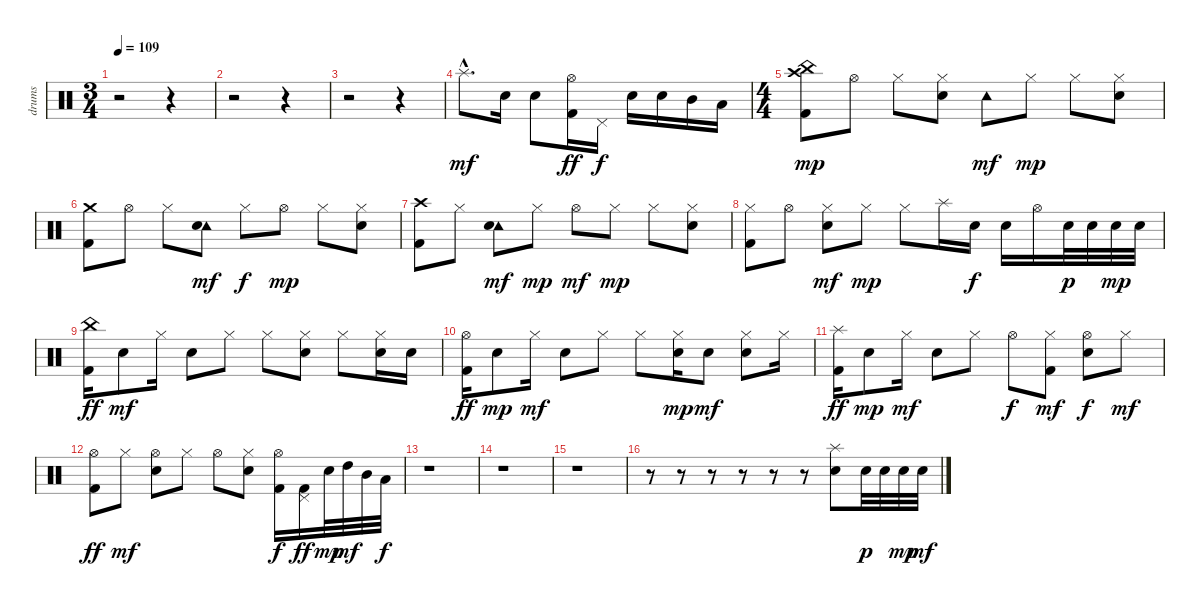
\track ("drums" "drums") {instrument percussion}
\staff {score}
\articulation defaults
\ts (3 4)
\tempo 109
\clef neutral
\ks c
r.2{dy mf} r.4 |
r.2 r.4 |
r.2 r.4 |
"Splash (hit)"{hac}.8{d} "Electric Snare (hit)".16 "Electric Snare (hit)".8 ("Hi-Hat (open)" "Kick (hit) 2").16{dy ff} "Pedal Hi-Hat (hit)".16{dy f} "Electric Snare (hit)".16 "Electric Snare (hit)".16 "Mid Tom (hit)".16 "Low Tom (hit)".16 |
\ts (4 4)
("China (hit)" "Crash high (hit)" "Kick (hit) 2").8{dy mp} "Hi-Hat (open)".8 "Hi-Hat (closed)".8 ("Hi-Hat (closed)" "Electric Snare (hit)").8 "Tambourine (hit)".8{dy mf} "Hi-Hat (closed)".8{dy mp} "Hi-Hat (closed)".8 ("Hi-Hat (closed)" "Electric Snare (hit)").8 |
("Crash medium (hit)" "Kick (hit) 2").8 "Hi-Hat (open)".8 "Hi-Hat (closed)".8 ("Tambourine (hit)" "Electric Snare (hit)").8{dy mf} "Hi-Hat (closed)".8{dy f} "Hi-Hat (open)".8{dy mp} "Hi-Hat (closed)".8 ("Hi-Hat (closed)" "Electric Snare (hit)").8 |
("Crash high (hit)" "Kick (hit) 2").8 "Hi-Hat (closed)".8 ("Tambourine (hit)" "Electric Snare (hit)").8{dy mf} "Hi-Hat (closed)".8{dy mp} "Hi-Hat (open)".8{dy mf} "Hi-Hat (closed)".8{dy mp} "Hi-Hat (closed)".8 ("Hi-Hat (closed)" "Electric Snare (hit)").8 |
("Hi-Hat (closed)" "Kick (hit) 2").8 "Hi-Hat (open)".8 ("Hi-Hat (closed)" "Electric Snare (hit)").8{dy mf} "Hi-Hat (closed)".8{dy mp} "Hi-Hat (closed)".8 "Splash (hit)".16 "Electric Snare (hit)".16{dy f} "Electric Snare (hit)".16 "Hi-Hat (open)".16 "Electric Snare (hit)".32{dy p} "Electric Snare (hit)".32 "Electric Snare (hit)".32{dy mp} "Electric Snare (hit)".32 |
("China (hit)" "Kick (hit) 2").16{dy ff} "Electric Snare (hit)".8{dy mf} "Hi-Hat (closed)".16 "Electric Snare (hit)".8 "Hi-Hat (closed)".8 "Hi-Hat (closed)".8 ("Hi-Hat (closed)" "Electric Snare (hit)").8 "Hi-Hat (closed)".8 ("Hi-Hat (closed)" "Electric Snare (hit)").16 "Electric Snare (hit)".16 |
("Hi-Hat (open)" "Kick (hit) 2").16{dy ff} "Electric Snare (hit)".8{dy mp} "Hi-Hat (closed)".16{dy mf} "Electric Snare (hit)".8 "Hi-Hat (closed)".8 "Hi-Hat (closed)".8 ("Hi-Hat (closed)" "Electric Snare (hit)").16{dy mp} "Electric Snare (hit)".8{dy mf} ("Hi-Hat (closed)" "Electric Snare (hit)").8 "Hi-Hat (closed)".16 |
("Splash (hit)" "Kick (hit) 2").16{dy ff} "Electric Snare (hit)".8{dy mp} "Hi-Hat (closed)".16{dy mf} "Electric Snare (hit)".8 "Hi-Hat (closed)".8 "Hi-Hat (open)".8{dy f} ("Hi-Hat (closed)" "Kick (hit) 2").8{dy mf} ("Hi-Hat (open)" "Electric Snare (hit)").8{dy f} "Hi-Hat (closed)".8{dy mf} |
("Hi-Hat (open)" "Kick (hit) 2").8{dy ff} "Hi-Hat (closed)".8{dy mf} ("Hi-Hat (open)" "Electric Snare (hit)").8 "Hi-Hat (closed)".8 "Hi-Hat (open)".8 ("Hi-Hat (closed)" "Electric Snare (hit)").8 ("Hi-Hat (open)" "Kick (hit) 2").16{dy f} ("Pedal Hi-Hat (hit)" "Kick (hit) 2").16{dy ff} "Electric Snare (hit)".32{dy mp} "High Tom (hit)".32{dy mf} "Mid Tom (hit)".32 "Low Tom (hit)".32{dy f} |
r.1 |
r.1 |
r.1 |
r.8 r.8 r.8 r.8 r.8 r.8 ("Splash (hit)" "Electric Snare (hit)").8 "Electric Snare (hit)".32{dy p} "Electric Snare (hit)".32 "Electric Snare (hit)".32{dy mp} "Electric Snare (hit)".32{dy mf}
